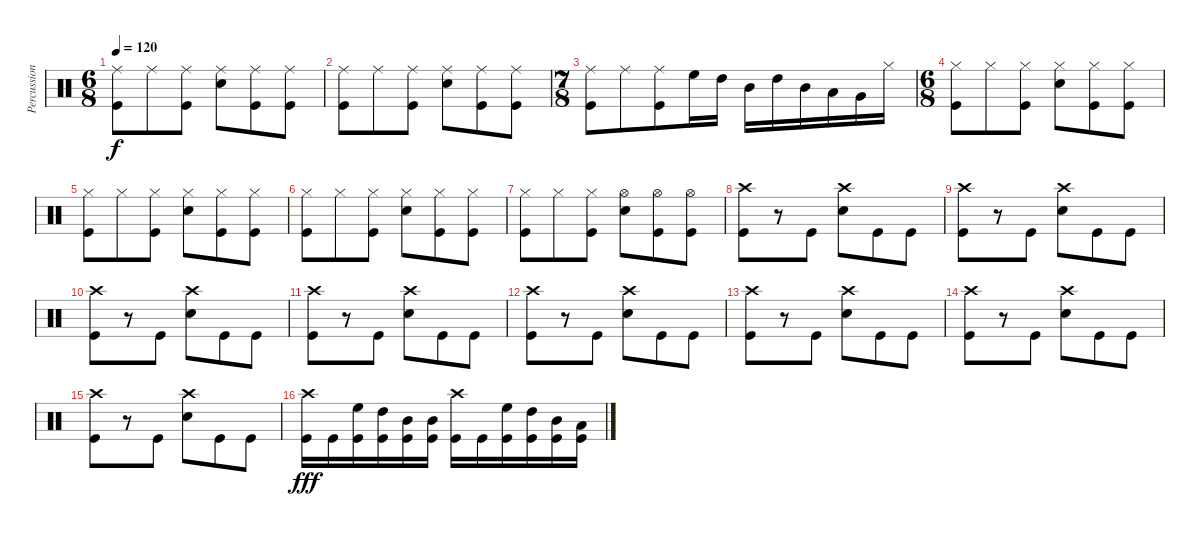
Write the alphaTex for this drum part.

\track ("Percussion" "Percussion") {instrument percussion}
\staff {score}
\articulation defaults
\ts (6 8)
\tempo 120
\clef neutral
\ks c
("Ride (middle)" "Kick (hit)").8{dy f} "Ride (middle)".8 ("Ride (middle)" "Kick (hit)").8 ("Ride (middle)" "Snare (hit) 2").8 ("Ride (middle)" "Kick (hit)").8 ("Ride (middle)" "Kick (hit)").8 |
("Ride (middle)" "Kick (hit)").8 "Ride (middle)".8 ("Ride (middle)" "Kick (hit)").8 ("Ride (middle)" "Snare (hit) 2").8 ("Ride (middle)" "Kick (hit)").8 ("Ride (middle)" "Kick (hit)").8 |
\ts (7 8)
("Ride (middle)" "Kick (hit)").8 "Ride (middle)".8 ("Ride (middle)" "Kick (hit)").8 "High Floor Tom (hit)".16 "High Tom (hit)".16 "Mid Tom (hit)".16 "High Tom (hit)".16 "Mid Tom (hit)".16 "Low Tom (hit)".16 "Very Low Tom (hit)".16 "Hi-Hat (closed)".16 |
\ts (6 8)
("Hi-Hat (closed)" "Kick (hit)").8 "Hi-Hat (closed)".8 ("Hi-Hat (closed)" "Kick (hit)").8 ("Hi-Hat (closed)" "Snare (hit) 2").8 ("Hi-Hat (closed)" "Kick (hit)").8 ("Hi-Hat (closed)" "Kick (hit)").8 |
("Hi-Hat (closed)" "Kick (hit)").8 "Hi-Hat (closed)".8 ("Hi-Hat (closed)" "Kick (hit)").8 ("Hi-Hat (closed)" "Snare (hit) 2").8 ("Hi-Hat (closed)" "Kick (hit)").8 ("Hi-Hat (closed)" "Kick (hit)").8 |
("Hi-Hat (closed)" "Kick (hit)").8 "Hi-Hat (closed)".8 ("Hi-Hat (closed)" "Kick (hit)").8 ("Hi-Hat (closed)" "Snare (hit) 2").8 ("Hi-Hat (closed)" "Kick (hit)").8 ("Hi-Hat (closed)" "Kick (hit)").8 |
("Hi-Hat (closed)" "Kick (hit)").8 "Hi-Hat (closed)".8 ("Hi-Hat (closed)" "Kick (hit)").8 ("Hi-Hat (open)" "Snare (hit) 2").8 ("Hi-Hat (open)" "Kick (hit)").8 ("Hi-Hat (open)" "Kick (hit)").8 |
("Crash high (hit)" "Kick (hit)").8 r.8 "Kick (hit)".8 ("Snare (hit) 2" "Crash high (hit)").8 "Kick (hit)".8 "Kick (hit)".8 |
("Crash high (hit)" "Kick (hit)").8 r.8 "Kick (hit)".8 ("Snare (hit) 2" "Crash high (hit)").8 "Kick (hit)".8 "Kick (hit)".8 |
("Crash high (hit)" "Kick (hit)").8 r.8 "Kick (hit)".8 ("Snare (hit) 2" "Crash high (hit)").8 "Kick (hit)".8 "Kick (hit)".8 |
("Crash high (hit)" "Kick (hit)").8 r.8 "Kick (hit)".8 ("Snare (hit) 2" "Crash high (hit)").8 "Kick (hit)".8 "Kick (hit)".8 |
("Crash high (hit)" "Kick (hit)").8 r.8 "Kick (hit)".8 ("Snare (hit) 2" "Crash high (hit)").8 "Kick (hit)".8 "Kick (hit)".8 |
("Crash high (hit)" "Kick (hit)").8 r.8 "Kick (hit)".8 ("Snare (hit) 2" "Crash high (hit)").8 "Kick (hit)".8 "Kick (hit)".8 |
("Crash high (hit)" "Kick (hit)").8 r.8 "Kick (hit)".8 ("Snare (hit) 2" "Crash high (hit)").8 "Kick (hit)".8 "Kick (hit)".8 |
("Crash high (hit)" "Kick (hit)").8 r.8 "Kick (hit)".8 ("Snare (hit) 2" "Crash high (hit)").8 "Kick (hit)".8 "Kick (hit)".8 |
("Kick (hit)" "Crash high (hit)").16{dy fff} "Kick (hit)".16 ("Kick (hit)" "High Floor Tom (hit)").16 ("Kick (hit)" "High Tom (hit)").16 ("Kick (hit)" "Mid Tom (hit)").16 ("Kick (hit)" "Mid Tom (hit)").16 ("Kick (hit)" "Crash high (hit)").16 "Kick (hit)".16 ("Kick (hit)" "High Floor Tom (hit)").16 ("Kick (hit)" "High Tom (hit)").16 ("Kick (hit)" "Mid Tom (hit)").16 ("Kick (hit)" "Low Tom (hit)").16
